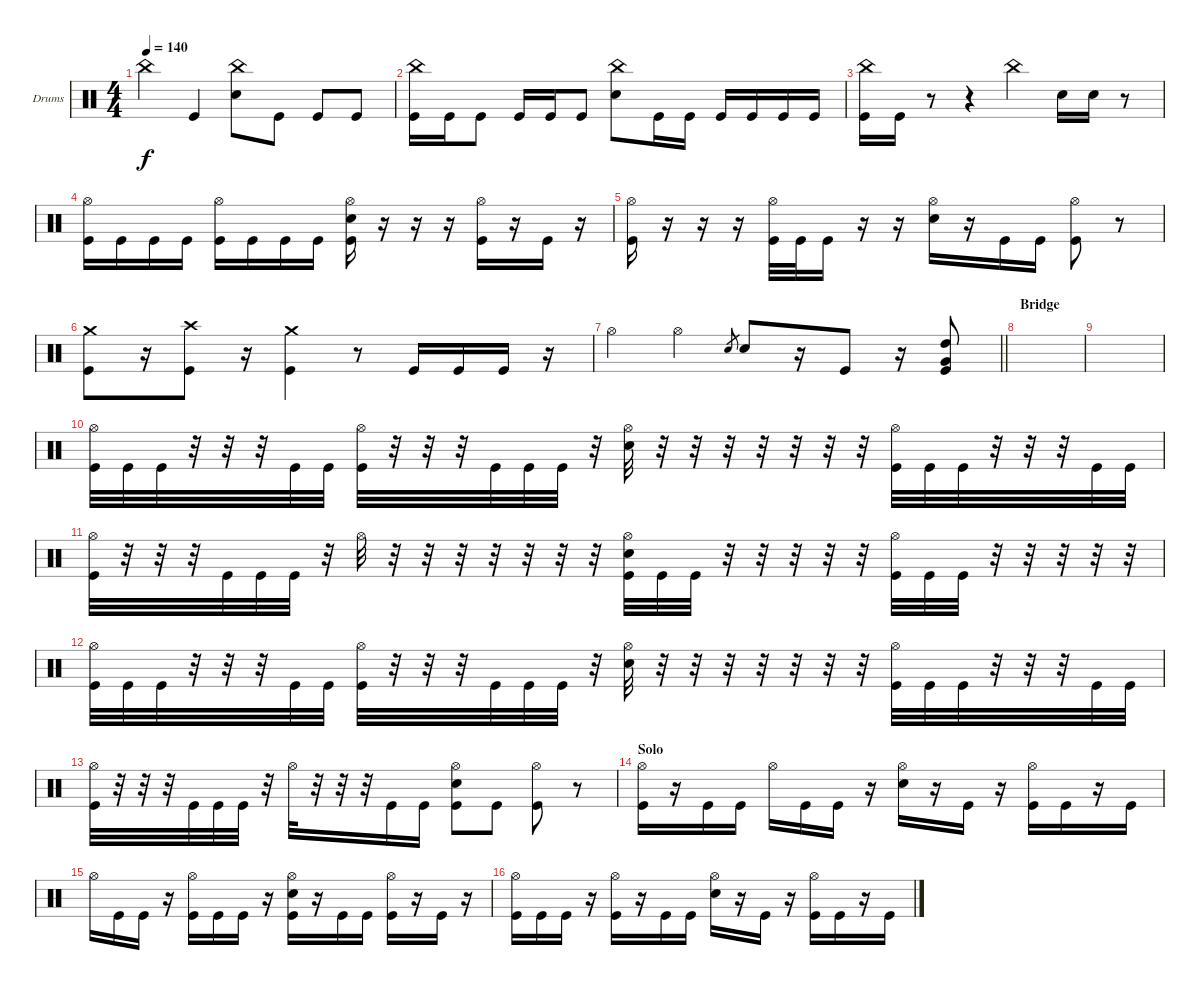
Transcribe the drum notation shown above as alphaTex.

\bracketExtendMode groupsimilarinstruments
\firstSystemTrackNameOrientation horizontal
\otherSystemsTrackNameOrientation horizontal
\track ("Drumkit" "Drums") {instrument percussion}
\staff {score}
\articulation defaults
\ts (4 4)
\tempo 140
\clef neutral
\ks c "China (hit)".4{dy f} "Kick (hit)".4
("China (hit)" "Snare (hit) 2").8 "Kick (hit)".8 "Kick (hit)".8 "Kick (hit)".8 |
("Kick (hit)" "China (hit)").16 "Kick (hit)".16 "Kick (hit)".8 "Kick (hit)".16 "Kick (hit)".16 "Kick (hit)".8 ("China (hit)" "Snare (hit) 2").8 "Kick (hit)".16 "Kick (hit)".16 "Kick (hit)".16 "Kick (hit)".16 "Kick (hit)".16 "Kick (hit)".16 |
("Kick (hit)" "China (hit)").16 "Kick (hit)".16 r.8 r.4 "China (hit)".4 "Snare (hit) 2".16 "Snare (hit) 2".16 r.8 |
("Kick (hit)" "Hi-Hat (open)").16 "Kick (hit)".16 "Kick (hit)".16 "Kick (hit)".16 ("Kick (hit)" "Hi-Hat (open)").16 "Kick (hit)".16 "Kick (hit)".16 "Kick (hit)".16 ("Kick (hit)" "Hi-Hat (open)" "Snare (hit) 2").16 r.16 r.16 r.16 ("Kick (hit)" "Hi-Hat (open)").16 r.16 "Kick (hit)".16 r.16 |
("Kick (hit)" "Hi-Hat (open)").16 r.16 r.16 r.16 ("Kick (hit)" "Hi-Hat (open)").32 "Kick (hit)".32 "Kick (hit)".16 r.16 r.16 ("Hi-Hat (open)" "Snare (hit) 2").16 r.16 "Kick (hit)".16 "Kick (hit)".16 ("Kick (hit)" "Hi-Hat (open)").8 r.8 |
("Crash medium (hit)" "Kick (hit)").8 r.16 ("Kick (hit)" "Crash high (hit)").8 r.16 ("Kick (hit)" "Crash medium (hit)").4 r.8 "Kick (hit)".16 "Kick (hit)".16 "Kick (hit)".16 r.16 |
\barLineRight lightlight "Hi-Hat (open)".4 "Hi-Hat (open)".4 "Snare (hit) 2".8{gr} "Snare (hit) 2".8
r.16 "Kick (hit)".8 r.16 ("Very Low Tom (hit)" "High Tom (hit)" "Kick (hit)").8 |
\section ("" "Bridge")
|
|
("Kick (hit)" "Hi-Hat (open)").32 "Kick (hit)".32 "Kick (hit)".32 r.32 r.32 r.32 "Kick (hit)".32 "Kick (hit)".32 ("Kick (hit)" "Hi-Hat (open)").32 r.32 r.32 r.32 "Kick (hit)".32 "Kick (hit)".32 "Kick (hit)".32 r.32 ("Hi-Hat (open)" "Snare (hit) 2").32 r.32 r.32 r.32 r.32 r.32 r.32 r.32 ("Kick (hit)" "Hi-Hat (open)").32 "Kick (hit)".32 "Kick (hit)".32 r.32 r.32 r.32 "Kick (hit)".32 "Kick (hit)".32 |
("Kick (hit)" "Hi-Hat (open)").32 r.32 r.32 r.32 "Kick (hit)".32 "Kick (hit)".32 "Kick (hit)".32 r.32 "Hi-Hat (open)".32 r.32 r.32 r.32 r.32 r.32 r.32 r.32 ("Kick (hit)" "Hi-Hat (open)" "Snare (hit) 2").32 "Kick (hit)".32 "Kick (hit)".32 r.32 r.32 r.32 r.32 r.32 ("Kick (hit)" "Hi-Hat (open)").32 "Kick (hit)".32 "Kick (hit)".32 r.32 r.32 r.32 r.32 r.32 |
\section ("" "")
("Kick (hit)" "Hi-Hat (open)").32 "Kick (hit)".32 "Kick (hit)".32 r.32 r.32 r.32 "Kick (hit)".32 "Kick (hit)".32 ("Kick (hit)" "Hi-Hat (open)").32 r.32 r.32 r.32 "Kick (hit)".32 "Kick (hit)".32 "Kick (hit)".32 r.32 ("Hi-Hat (open)" "Snare (hit) 2").32 r.32 r.32 r.32 r.32 r.32 r.32 r.32 ("Kick (hit)" "Hi-Hat (open)").32 "Kick (hit)".32 "Kick (hit)".32 r.32 r.32 r.32 "Kick (hit)".32 "Kick (hit)".32 |
("Kick (hit)" "Hi-Hat (open)").32 r.32 r.32 r.32 "Kick (hit)".32 "Kick (hit)".32 "Kick (hit)".32 r.32 "Hi-Hat (open)".32 r.32 r.32 r.32 "Kick (hit)".16 "Kick (hit)".16 ("Kick (hit)" "Hi-Hat (open)" "Snare (hit) 2").8 "Kick (hit)".8 ("Kick (hit)" "Hi-Hat (open)").8 r.8 |
\section ("" "Solo")
("Kick (hit)" "Hi-Hat (open)").16 r.16 "Kick (hit)".16 "Kick (hit)".16 "Hi-Hat (open)".16 "Kick (hit)".16 "Kick (hit)".16 r.16 ("Hi-Hat (open)" "Snare (hit) 2").16 r.16 "Kick (hit)".16 r.16 ("Kick (hit)" "Hi-Hat (open)").16 "Kick (hit)".16 r.16 "Kick (hit)".16 |
"Hi-Hat (open)".16 "Kick (hit)".16 "Kick (hit)".16 r.16 ("Kick (hit)" "Hi-Hat (open)").16 "Kick (hit)".16 "Kick (hit)".16 r.16 ("Kick (hit)" "Hi-Hat (open)" "Snare (hit) 2").16 r.16 "Kick (hit)".16 "Kick (hit)".16 ("Kick (hit)" "Hi-Hat (open)").16 r.16 "Kick (hit)".16 r.16 |
("Kick (hit)" "Hi-Hat (open)").16 "Kick (hit)".16 "Kick (hit)".16 r.16 ("Kick (hit)" "Hi-Hat (open)").16 r.16 "Kick (hit)".16 "Kick (hit)".16 ("Hi-Hat (open)" "Snare (hit) 2").16 r.16 "Kick (hit)".16 r.16 ("Kick (hit)" "Hi-Hat (open)").16 "Kick (hit)".16 r.16 "Kick (hit)".16
